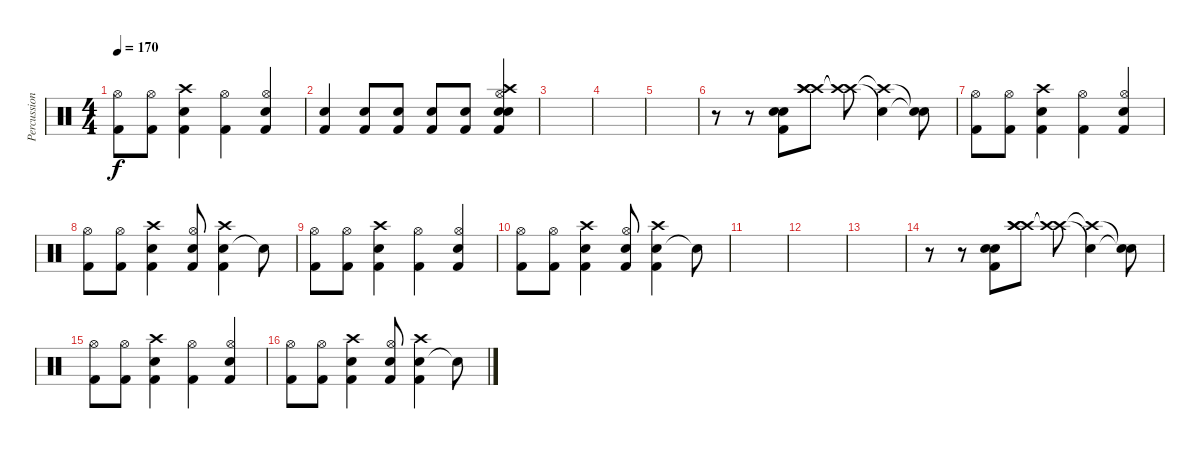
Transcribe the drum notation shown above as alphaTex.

\track ("Percussion" "Percussion") {instrument percussion}
\staff {score}
\articulation defaults
\ts (4 4)
\tempo 170
\clef neutral
\ks c
("Kick (hit) 2" "Hi-Hat (open)").8{dy f} ("Kick (hit) 2" "Hi-Hat (open)").8 ("Electric Snare (hit)" "Kick (hit) 2" "Crash high (hit)").4 ("Kick (hit) 2" "Hi-Hat (open)").4 ("Electric Snare (hit)" "Kick (hit) 2" "Hi-Hat (open)").4 |
("Snare (hit) 2" "Kick (hit) 2").4 ("Snare (hit) 2" "Kick (hit) 2").8 ("Snare (hit) 2" "Kick (hit) 2").8 ("Snare (hit) 2" "Kick (hit) 2").8 ("Snare (hit) 2" "Kick (hit) 2").8 ("Snare (hit) 2" "Electric Snare (hit)" "Kick (hit) 2" "Crash high (hit)" "Hi-Hat (open)").4 |
|
|
|
r.8 r.8 ("Electric Snare (hit)" "Kick (hit) 2" "Snare (hit) 2").8 ("Crash high (hit)" "Crash high (hit)" "Crash high (hit)").8 ("Crash high (hit)"{t} "Crash high (hit)"{t}).8 ("Crash high (hit)"{t} "Snare (hit)"{t}).4 ("Snare (hit)"{t} "Snare (hit)"{t}).8 |
("Kick (hit) 2" "Hi-Hat (open)").8 ("Kick (hit) 2" "Hi-Hat (open)").8 ("Electric Snare (hit)" "Kick (hit) 2" "Crash high (hit)").4 ("Kick (hit) 2" "Hi-Hat (open)").4 ("Electric Snare (hit)" "Kick (hit) 2" "Hi-Hat (open)").4 |
("Kick (hit) 2" "Hi-Hat (open)").8 ("Kick (hit) 2" "Hi-Hat (open)").8 ("Electric Snare (hit)" "Kick (hit) 2" "Crash high (hit)").4 ("Electric Snare (hit)" "Kick (hit) 2" "Hi-Hat (open)").8 ("Electric Snare (hit)" "Kick (hit) 2" "Crash high (hit)").4 "Snare (hit)"{t}.8 |
("Kick (hit) 2" "Hi-Hat (open)").8 ("Kick (hit) 2" "Hi-Hat (open)").8 ("Electric Snare (hit)" "Kick (hit) 2" "Crash high (hit)").4 ("Kick (hit) 2" "Hi-Hat (open)").4 ("Electric Snare (hit)" "Kick (hit) 2" "Hi-Hat (open)").4 |
("Kick (hit) 2" "Hi-Hat (open)").8 ("Kick (hit) 2" "Hi-Hat (open)").8 ("Electric Snare (hit)" "Kick (hit) 2" "Crash high (hit)").4 ("Electric Snare (hit)" "Kick (hit) 2" "Hi-Hat (open)").8 ("Electric Snare (hit)" "Kick (hit) 2" "Crash high (hit)").4 "Snare (hit)"{t}.8 |
|
|
|
r.8 r.8 ("Electric Snare (hit)" "Kick (hit) 2" "Snare (hit) 2").8 ("Crash high (hit)" "Crash high (hit)" "Crash high (hit)").8 ("Crash high (hit)"{t} "Crash high (hit)"{t}).8 ("Crash high (hit)"{t} "Snare (hit)"{t}).4 ("Snare (hit)"{t} "Snare (hit)"{t}).8 |
("Kick (hit) 2" "Hi-Hat (open)").8 ("Kick (hit) 2" "Hi-Hat (open)").8 ("Electric Snare (hit)" "Kick (hit) 2" "Crash high (hit)").4 ("Kick (hit) 2" "Hi-Hat (open)").4 ("Electric Snare (hit)" "Kick (hit) 2" "Hi-Hat (open)").4 |
("Kick (hit) 2" "Hi-Hat (open)").8 ("Kick (hit) 2" "Hi-Hat (open)").8 ("Electric Snare (hit)" "Kick (hit) 2" "Crash high (hit)").4 ("Electric Snare (hit)" "Kick (hit) 2" "Hi-Hat (open)").8 ("Electric Snare (hit)" "Kick (hit) 2" "Crash high (hit)").4 "Snare (hit)"{t}.8
